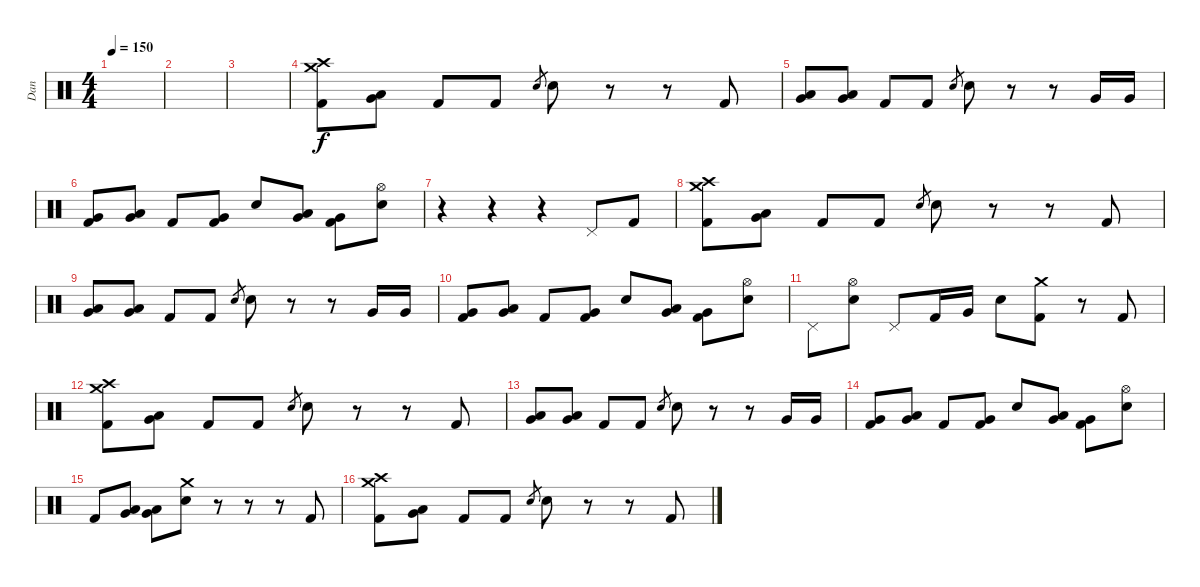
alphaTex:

\track ("Dan" "Dan") {instrument percussion}
\staff {score}
\articulation defaults
\ts (4 4)
\tempo 150
\clef neutral
\ks c
|
|
|
("Crash high (hit)" "Crash medium (hit)" "Kick (hit) 2").8 ("Low Tom (hit)" "Very Low Tom (hit)").8 "Kick (hit) 2".8 "Kick (hit) 2".8 "Electric Snare (hit)".8{gr} "Electric Snare (hit)".8 r.8 r.8 "Kick (hit) 2".8 |
("Low Tom (hit)" "Very Low Tom (hit)").8 ("Low Tom (hit)" "Very Low Tom (hit)").8 "Kick (hit) 2".8 "Kick (hit) 2".8 "Electric Snare (hit)".8{gr} "Electric Snare (hit)".8 r.8 r.8 "Very Low Tom (hit)".16 "Very Low Tom (hit)".16 |
("Very Low Tom (hit)" "Kick (hit) 2").8 ("Low Tom (hit)" "Very Low Tom (hit)").8 "Kick (hit) 2".8 ("Very Low Tom (hit)" "Kick (hit) 2").8 "Electric Snare (hit)".8 ("Low Tom (hit)" "Very Low Tom (hit)").8 ("Very Low Tom (hit)" "Kick (hit) 2").8 ("Hi-Hat (open)" "Electric Snare (hit)").8 |
r.4 r.4 r.4 "Pedal Hi-Hat (hit)".8 "Kick (hit) 2".8 |
("Crash high (hit)" "Crash medium (hit)" "Kick (hit) 2").8 ("Low Tom (hit)" "Very Low Tom (hit)").8 "Kick (hit) 2".8 "Kick (hit) 2".8 "Electric Snare (hit)".8{gr} "Electric Snare (hit)".8 r.8 r.8 "Kick (hit) 2".8 |
("Low Tom (hit)" "Very Low Tom (hit)").8 ("Low Tom (hit)" "Very Low Tom (hit)").8 "Kick (hit) 2".8 "Kick (hit) 2".8 "Electric Snare (hit)".8{gr} "Electric Snare (hit)".8 r.8 r.8 "Very Low Tom (hit)".16 "Very Low Tom (hit)".16 |
("Very Low Tom (hit)" "Kick (hit) 2").8 ("Low Tom (hit)" "Very Low Tom (hit)").8 "Kick (hit) 2".8 ("Very Low Tom (hit)" "Kick (hit) 2").8 "Electric Snare (hit)".8 ("Low Tom (hit)" "Very Low Tom (hit)").8 ("Very Low Tom (hit)" "Kick (hit) 2").8 ("Hi-Hat (open)" "Electric Snare (hit)").8 |
"Pedal Hi-Hat (hit)".8 ("Hi-Hat (open)" "Electric Snare (hit)").8 "Pedal Hi-Hat (hit)".8 "Kick (hit) 2".16 "Very Low Tom (hit)".16 "Electric Snare (hit)".8 ("Crash medium (hit)" "Kick (hit) 2").8 r.8{volume 0} "Kick (hit) 2".8{volume 12} |
("Crash high (hit)" "Crash medium (hit)" "Kick (hit) 2").8 ("Low Tom (hit)" "Very Low Tom (hit)").8 "Kick (hit) 2".8 "Kick (hit) 2".8 "Electric Snare (hit)".8{gr} "Electric Snare (hit)".8 r.8 r.8 "Kick (hit) 2".8 |
("Low Tom (hit)" "Very Low Tom (hit)").8 ("Low Tom (hit)" "Very Low Tom (hit)").8 "Kick (hit) 2".8 "Kick (hit) 2".8 "Electric Snare (hit)".8{gr} "Electric Snare (hit)".8 r.8 r.8 "Very Low Tom (hit)".16 "Very Low Tom (hit)".16 |
("Very Low Tom (hit)" "Kick (hit) 2").8 ("Low Tom (hit)" "Very Low Tom (hit)").8 "Kick (hit) 2".8 ("Very Low Tom (hit)" "Kick (hit) 2").8 "Electric Snare (hit)".8 ("Low Tom (hit)" "Very Low Tom (hit)").8 ("Very Low Tom (hit)" "Kick (hit) 2").8 ("Hi-Hat (open)" "Electric Snare (hit)").8 |
"Kick (hit) 2".8 ("Low Tom (hit)" "Very Low Tom (hit)").8 ("Low Tom (hit)" "Very Low Tom (hit)").8 ("Crash medium (hit)" "Electric Snare (hit)").8 r.8 r.8 r.8 "Kick (hit) 2".8 |
("Crash high (hit)" "Crash medium (hit)" "Kick (hit) 2").8 ("Low Tom (hit)" "Very Low Tom (hit)").8 "Kick (hit) 2".8 "Kick (hit) 2".8 "Electric Snare (hit)".8{gr} "Electric Snare (hit)".8 r.8 r.8 "Kick (hit) 2".8
